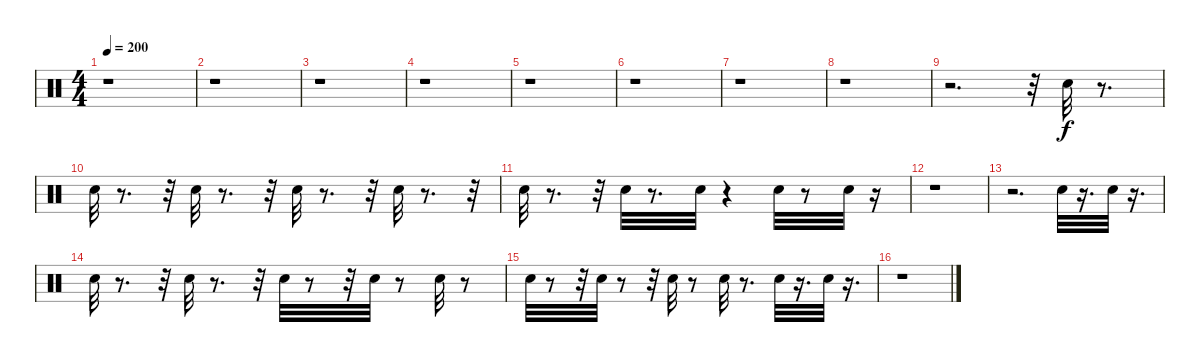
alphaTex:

\track "" {instrument percussion}
\staff {score}
\articulation defaults
\ts (4 4)
\tempo 200
\clef neutral
\ks c
r.1{dy f} |
r.1 |
r.1 |
r.1 |
r.1 |
r.1 |
r.1 |
r.1 |
r.2{d} r.32 "Snare (hit)".32 r.8{d} |
"Snare (hit)".32 r.8{d} r.32 "Snare (hit)".32 r.8{d} r.32 "Snare (hit)".32 r.8{d} r.32 "Snare (hit)".32 r.8{d} r.32 |
"Snare (hit)".32 r.8{d} r.32 "Snare (hit)".32 r.8{d} "Snare (hit)".32 r.4 "Snare (hit)".32 r.8 "Snare (hit)".32 r.16 |
r.1 |
r.2{d} "Snare (hit)".32 r.16{d} "Snare (hit)".32 r.16{d} |
"Snare (hit)".32 r.8{d} r.32 "Snare (hit)".32 r.8{d} r.32 "Snare (hit)".32 r.8 r.32 "Snare (hit)".32 r.8 "Snare (hit)".32 r.8 |
"Snare (hit)".32 r.8 r.32 "Snare (hit)".32 r.8 r.32 "Snare (hit)".32 r.8 "Snare (hit)".32 r.8{d} "Snare (hit)".32 r.16{d} "Snare (hit)".32 r.16{d} |
r.1
